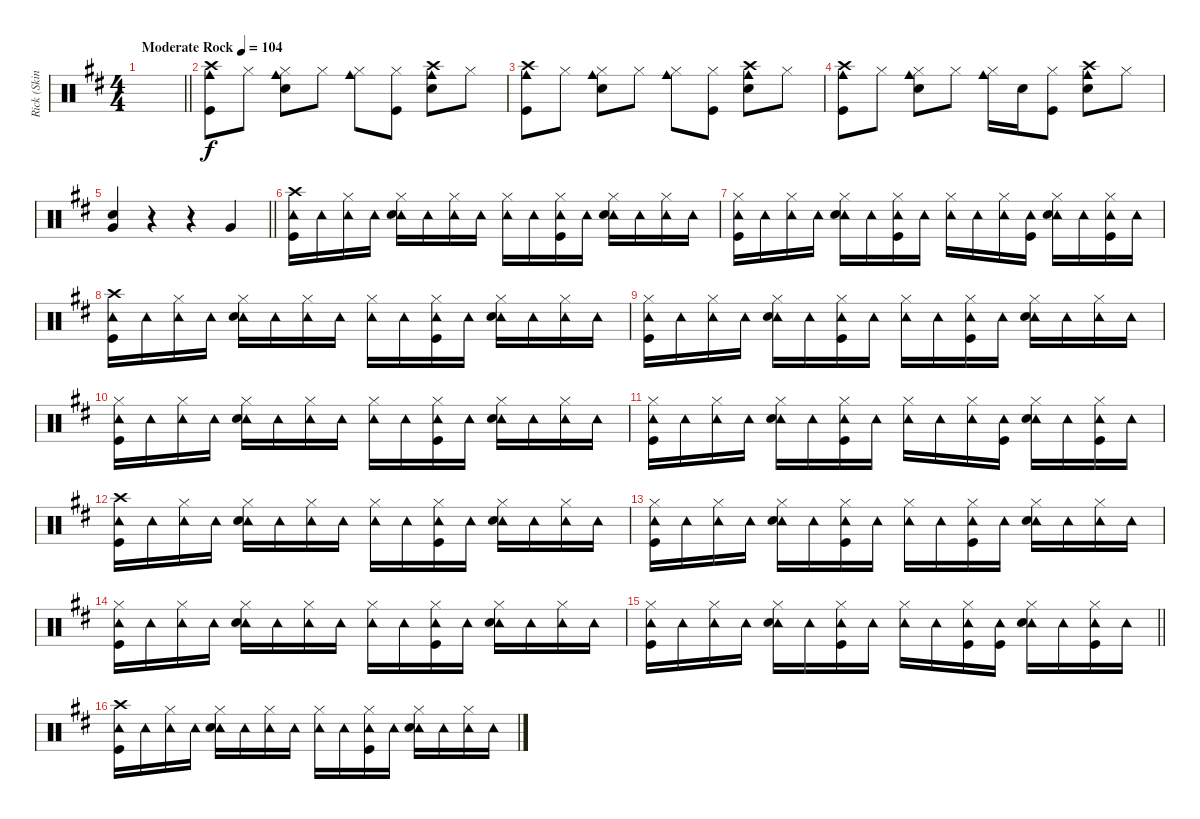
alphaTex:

\track ("Rick (Skins)" "Rick (Skin") {instrument percussion}
\staff {score}
\articulation defaults
\ts (4 4)
\tempo (104 "Moderate Rock")
\clef neutral
\barLineRight lightlight
\ks d
|
("Cowbell medium (hit)" "Crash high (hit)" "Kick (hit)").8 "Hi-Hat (closed)".8 ("Cowbell medium (hit)" "Hi-Hat (closed)" "Snare (hit) 2").8 "Hi-Hat (closed)".8 ("Cowbell medium (hit)" "Hi-Hat (closed)").8 ("Hi-Hat (closed)" "Kick (hit)").8 ("Cowbell medium (hit)" "Crash high (hit)" "Snare (hit) 2").8 "Hi-Hat (closed)".8 |
("Cowbell medium (hit)" "Crash high (hit)" "Kick (hit)").8 "Hi-Hat (closed)".8 ("Cowbell medium (hit)" "Hi-Hat (closed)" "Snare (hit) 2").8 "Hi-Hat (closed)".8 ("Cowbell medium (hit)" "Hi-Hat (closed)").8 ("Hi-Hat (closed)" "Kick (hit)").8 ("Cowbell medium (hit)" "Crash high (hit)" "Snare (hit) 2").8 "Hi-Hat (closed)".8 |
("Cowbell medium (hit)" "Crash high (hit)" "Kick (hit)").8 "Hi-Hat (closed)".8 ("Cowbell medium (hit)" "Hi-Hat (closed)" "Snare (hit) 2").8 "Hi-Hat (closed)".8 ("Cowbell medium (hit)" "Hi-Hat (closed)").16 "Snare (hit) 2".16 ("Hi-Hat (closed)" "Kick (hit)").8 ("Cowbell medium (hit)" "Crash high (hit)" "Snare (hit) 2").8 "Hi-Hat (closed)".8 |
\barLineRight lightlight
("Snare (hit) 2" "Very Low Tom (hit)").4 r.4 r.4 "Very Low Tom (hit)".4 |
("Tambourine (hit)" "Crash high (hit)" "Kick (hit)").16 "Tambourine (hit)".16 ("Tambourine (hit)" "Hi-Hat (closed)").16 "Tambourine (hit)".16 ("Tambourine (hit)" "Hi-Hat (closed)" "Snare (hit) 2").16 "Tambourine (hit)".16 ("Tambourine (hit)" "Hi-Hat (closed)").16 "Tambourine (hit)".16 ("Tambourine (hit)" "Hi-Hat (closed)").16 "Tambourine (hit)".16 ("Tambourine (hit)" "Hi-Hat (closed)" "Kick (hit)").16 "Tambourine (hit)".16 ("Tambourine (hit)" "Hi-Hat (closed)" "Snare (hit) 2").16 "Tambourine (hit)".16 ("Tambourine (hit)" "Hi-Hat (closed)").16 "Tambourine (hit)".16 |
("Tambourine (hit)" "Hi-Hat (closed)" "Kick (hit)").16 "Tambourine (hit)".16 ("Tambourine (hit)" "Hi-Hat (closed)").16 "Tambourine (hit)".16 ("Tambourine (hit)" "Hi-Hat (closed)" "Snare (hit) 2").16 "Tambourine (hit)".16 ("Tambourine (hit)" "Hi-Hat (closed)" "Kick (hit)").16 "Tambourine (hit)".16 ("Tambourine (hit)" "Hi-Hat (closed)").16 "Tambourine (hit)".16 ("Tambourine (hit)" "Hi-Hat (closed)").16 ("Tambourine (hit)" "Kick (hit)").16 ("Tambourine (hit)" "Hi-Hat (closed)" "Snare (hit) 2").16 "Tambourine (hit)".16 ("Tambourine (hit)" "Hi-Hat (closed)" "Kick (hit)").16 "Tambourine (hit)".16 |
("Tambourine (hit)" "Crash high (hit)" "Kick (hit)").16 "Tambourine (hit)".16 ("Tambourine (hit)" "Hi-Hat (closed)").16 "Tambourine (hit)".16 ("Tambourine (hit)" "Hi-Hat (closed)" "Snare (hit) 2").16 "Tambourine (hit)".16 ("Tambourine (hit)" "Hi-Hat (closed)").16 "Tambourine (hit)".16 ("Tambourine (hit)" "Hi-Hat (closed)").16 "Tambourine (hit)".16 ("Tambourine (hit)" "Hi-Hat (closed)" "Kick (hit)").16 "Tambourine (hit)".16 ("Tambourine (hit)" "Hi-Hat (closed)" "Snare (hit) 2").16 "Tambourine (hit)".16 ("Tambourine (hit)" "Hi-Hat (closed)").16 "Tambourine (hit)".16 |
("Tambourine (hit)" "Hi-Hat (closed)" "Kick (hit)").16 "Tambourine (hit)".16 ("Tambourine (hit)" "Hi-Hat (closed)").16 "Tambourine (hit)".16 ("Tambourine (hit)" "Hi-Hat (closed)" "Snare (hit) 2").16 "Tambourine (hit)".16 ("Tambourine (hit)" "Hi-Hat (closed)" "Kick (hit)").16 "Tambourine (hit)".16 ("Tambourine (hit)" "Hi-Hat (closed)").16 "Tambourine (hit)".16 ("Tambourine (hit)" "Hi-Hat (closed)" "Kick (hit)").16 "Tambourine (hit)".16 ("Tambourine (hit)" "Hi-Hat (closed)" "Snare (hit) 2").16 "Tambourine (hit)".16 ("Tambourine (hit)" "Hi-Hat (closed)").16 "Tambourine (hit)".16 |
("Tambourine (hit)" "Hi-Hat (closed)" "Kick (hit)").16 "Tambourine (hit)".16 ("Tambourine (hit)" "Hi-Hat (closed)").16 "Tambourine (hit)".16 ("Tambourine (hit)" "Hi-Hat (closed)" "Snare (hit) 2").16 "Tambourine (hit)".16 ("Tambourine (hit)" "Hi-Hat (closed)").16 "Tambourine (hit)".16 ("Tambourine (hit)" "Hi-Hat (closed)").16 "Tambourine (hit)".16 ("Tambourine (hit)" "Hi-Hat (closed)" "Kick (hit)").16 "Tambourine (hit)".16 ("Tambourine (hit)" "Hi-Hat (closed)" "Snare (hit) 2").16 "Tambourine (hit)".16 ("Tambourine (hit)" "Hi-Hat (closed)").16 "Tambourine (hit)".16 |
("Tambourine (hit)" "Hi-Hat (closed)" "Kick (hit)").16 "Tambourine (hit)".16 ("Tambourine (hit)" "Hi-Hat (closed)").16 "Tambourine (hit)".16 ("Tambourine (hit)" "Hi-Hat (closed)" "Snare (hit) 2").16 "Tambourine (hit)".16 ("Tambourine (hit)" "Hi-Hat (closed)" "Kick (hit)").16 "Tambourine (hit)".16 ("Tambourine (hit)" "Hi-Hat (closed)").16 "Tambourine (hit)".16 ("Tambourine (hit)" "Hi-Hat (closed)").16 ("Tambourine (hit)" "Kick (hit)").16 ("Tambourine (hit)" "Hi-Hat (closed)" "Snare (hit) 2").16 "Tambourine (hit)".16 ("Tambourine (hit)" "Hi-Hat (closed)" "Kick (hit)").16 "Tambourine (hit)".16 |
("Tambourine (hit)" "Crash high (hit)" "Kick (hit)").16 "Tambourine (hit)".16 ("Tambourine (hit)" "Hi-Hat (closed)").16 "Tambourine (hit)".16 ("Tambourine (hit)" "Hi-Hat (closed)" "Snare (hit) 2").16 "Tambourine (hit)".16 ("Tambourine (hit)" "Hi-Hat (closed)").16 "Tambourine (hit)".16 ("Tambourine (hit)" "Hi-Hat (closed)").16 "Tambourine (hit)".16 ("Tambourine (hit)" "Hi-Hat (closed)" "Kick (hit)").16 "Tambourine (hit)".16 ("Tambourine (hit)" "Hi-Hat (closed)" "Snare (hit) 2").16 "Tambourine (hit)".16 ("Tambourine (hit)" "Hi-Hat (closed)").16 "Tambourine (hit)".16 |
("Tambourine (hit)" "Hi-Hat (closed)" "Kick (hit)").16 "Tambourine (hit)".16 ("Tambourine (hit)" "Hi-Hat (closed)").16 "Tambourine (hit)".16 ("Tambourine (hit)" "Hi-Hat (closed)" "Snare (hit) 2").16 "Tambourine (hit)".16 ("Tambourine (hit)" "Hi-Hat (closed)" "Kick (hit)").16 "Tambourine (hit)".16 ("Tambourine (hit)" "Hi-Hat (closed)").16 "Tambourine (hit)".16 ("Tambourine (hit)" "Hi-Hat (closed)" "Kick (hit)").16 "Tambourine (hit)".16 ("Tambourine (hit)" "Hi-Hat (closed)" "Snare (hit) 2").16 "Tambourine (hit)".16 ("Tambourine (hit)" "Hi-Hat (closed)").16 "Tambourine (hit)".16 |
("Tambourine (hit)" "Hi-Hat (closed)" "Kick (hit)").16 "Tambourine (hit)".16 ("Tambourine (hit)" "Hi-Hat (closed)").16 "Tambourine (hit)".16 ("Tambourine (hit)" "Hi-Hat (closed)" "Snare (hit) 2").16 "Tambourine (hit)".16 ("Tambourine (hit)" "Hi-Hat (closed)").16 "Tambourine (hit)".16 ("Tambourine (hit)" "Hi-Hat (closed)").16 "Tambourine (hit)".16 ("Tambourine (hit)" "Hi-Hat (closed)" "Kick (hit)").16 "Tambourine (hit)".16 ("Tambourine (hit)" "Hi-Hat (closed)" "Snare (hit) 2").16 "Tambourine (hit)".16 ("Tambourine (hit)" "Hi-Hat (closed)").16 "Tambourine (hit)".16 |
\barLineRight lightlight
("Tambourine (hit)" "Hi-Hat (closed)" "Kick (hit)").16 "Tambourine (hit)".16 ("Tambourine (hit)" "Hi-Hat (closed)").16 "Tambourine (hit)".16 ("Tambourine (hit)" "Hi-Hat (closed)" "Snare (hit) 2").16 "Tambourine (hit)".16 ("Tambourine (hit)" "Hi-Hat (closed)" "Kick (hit)").16 "Tambourine (hit)".16 ("Tambourine (hit)" "Hi-Hat (closed)").16 "Tambourine (hit)".16 ("Tambourine (hit)" "Hi-Hat (closed)" "Kick (hit)").16 ("Tambourine (hit)" "Kick (hit)").16 ("Tambourine (hit)" "Hi-Hat (closed)" "Snare (hit) 2").16 "Tambourine (hit)".16 ("Tambourine (hit)" "Hi-Hat (closed)" "Kick (hit)").16 "Tambourine (hit)".16 |
("Tambourine (hit)" "Crash high (hit)" "Kick (hit)").16 "Tambourine (hit)".16 ("Tambourine (hit)" "Hi-Hat (closed)").16 "Tambourine (hit)".16 ("Tambourine (hit)" "Hi-Hat (closed)" "Snare (hit) 2").16 "Tambourine (hit)".16 ("Tambourine (hit)" "Hi-Hat (closed)").16 "Tambourine (hit)".16 ("Tambourine (hit)" "Hi-Hat (closed)").16 "Tambourine (hit)".16 ("Tambourine (hit)" "Hi-Hat (closed)" "Kick (hit)").16 "Tambourine (hit)".16 ("Tambourine (hit)" "Hi-Hat (closed)" "Snare (hit) 2").16 "Tambourine (hit)".16 ("Tambourine (hit)" "Hi-Hat (closed)").16 "Tambourine (hit)".16
